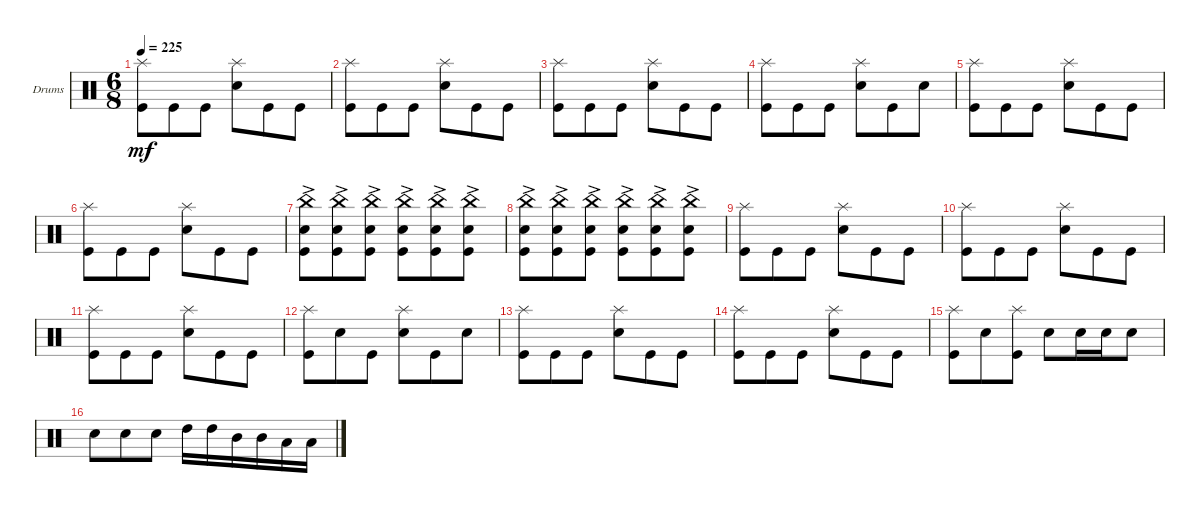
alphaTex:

\bracketExtendMode groupsimilarinstruments
\firstSystemTrackNameOrientation horizontal
\otherSystemsTrackNameOrientation horizontal
\track ("Drumkit" "Drums") {instrument percussion}
\staff {score}
\articulation defaults
\ts (6 8)
\tempo 225
\clef neutral
\ks c
("Kick (hit)" "Splash (hit)").8{dy mf} "Kick (hit)".8 "Kick (hit)".8 ("Snare (hit) 2" "Splash (hit)").8 "Kick (hit)".8 "Kick (hit)".8 |
("Kick (hit)" "Splash (hit)").8 "Kick (hit)".8 "Kick (hit)".8 ("Snare (hit) 2" "Splash (hit)").8 "Kick (hit)".8 "Kick (hit)".8 |
("Kick (hit)" "Splash (hit)").8 "Kick (hit)".8 "Kick (hit)".8 ("Snare (hit) 2" "Splash (hit)").8 "Kick (hit)".8 "Kick (hit)".8 |
("Kick (hit)" "Splash (hit)").8 "Kick (hit)".8 "Kick (hit)".8 ("Snare (hit) 2" "Splash (hit)").8 "Kick (hit)".8 "Snare (hit) 2".8 |
("Kick (hit)" "Splash (hit)").8 "Kick (hit)".8 "Kick (hit)".8 ("Snare (hit) 2" "Splash (hit)").8 "Kick (hit)".8 "Kick (hit)".8 |
("Kick (hit)" "Splash (hit)").8 "Kick (hit)".8 "Kick (hit)".8 ("Snare (hit) 2" "Splash (hit)").8 "Kick (hit)".8 "Kick (hit)".8 |
("Snare (hit) 2"{ac} "China (hit)" "Kick (hit)").8 ("Snare (hit) 2"{ac} "China (hit)" "Kick (hit)").8 ("Snare (hit) 2"{ac} "China (hit)" "Kick (hit)").8 ("Snare (hit) 2"{ac} "China (hit)" "Kick (hit)").8 ("Snare (hit) 2"{ac} "China (hit)" "Kick (hit)").8 ("Snare (hit) 2"{ac} "China (hit)" "Kick (hit)").8 |
("Snare (hit) 2"{ac} "China (hit)" "Kick (hit)").8 ("Snare (hit) 2"{ac} "China (hit)" "Kick (hit)").8 ("Snare (hit) 2"{ac} "China (hit)" "Kick (hit)").8 ("Snare (hit) 2"{ac} "China (hit)" "Kick (hit)").8 ("Snare (hit) 2"{ac} "China (hit)" "Kick (hit)").8 ("Snare (hit) 2"{ac} "China (hit)" "Kick (hit)").8 |
("Kick (hit)" "Splash (hit)").8 "Kick (hit)".8 "Kick (hit)".8 ("Snare (hit) 2" "Splash (hit)").8 "Kick (hit)".8 "Kick (hit)".8 |
("Kick (hit)" "Splash (hit)").8 "Kick (hit)".8 "Kick (hit)".8 ("Snare (hit) 2" "Splash (hit)").8 "Kick (hit)".8 "Kick (hit)".8 |
("Kick (hit)" "Splash (hit)").8 "Kick (hit)".8 "Kick (hit)".8 ("Snare (hit) 2" "Splash (hit)").8 "Kick (hit)".8 "Kick (hit)".8 |
("Kick (hit)" "Splash (hit)").8 "Snare (hit) 2".8 "Kick (hit)".8 ("Snare (hit) 2" "Splash (hit)").8 "Kick (hit)".8 "Snare (hit) 2".8 |
("Kick (hit)" "Splash (hit)").8 "Kick (hit)".8 "Kick (hit)".8 ("Snare (hit) 2" "Splash (hit)").8 "Kick (hit)".8 "Kick (hit)".8 |
("Kick (hit)" "Splash (hit)").8 "Kick (hit)".8 "Kick (hit)".8 ("Snare (hit) 2" "Splash (hit)").8 "Kick (hit)".8 "Kick (hit)".8 |
("Kick (hit)" "Splash (hit)").8 "Snare (hit) 2".8 ("Kick (hit)" "Splash (hit)").8 "Snare (hit) 2".8 "Snare (hit) 2".16 "Snare (hit) 2".16 "Snare (hit) 2".8 |
"Snare (hit) 2".8 "Snare (hit) 2".8 "Snare (hit) 2".8 "High Tom (hit)".16 "High Tom (hit)".16 "Mid Tom (hit)".16 "Mid Tom (hit)".16 "Low Tom (hit)".16 "Low Tom (hit)".16
